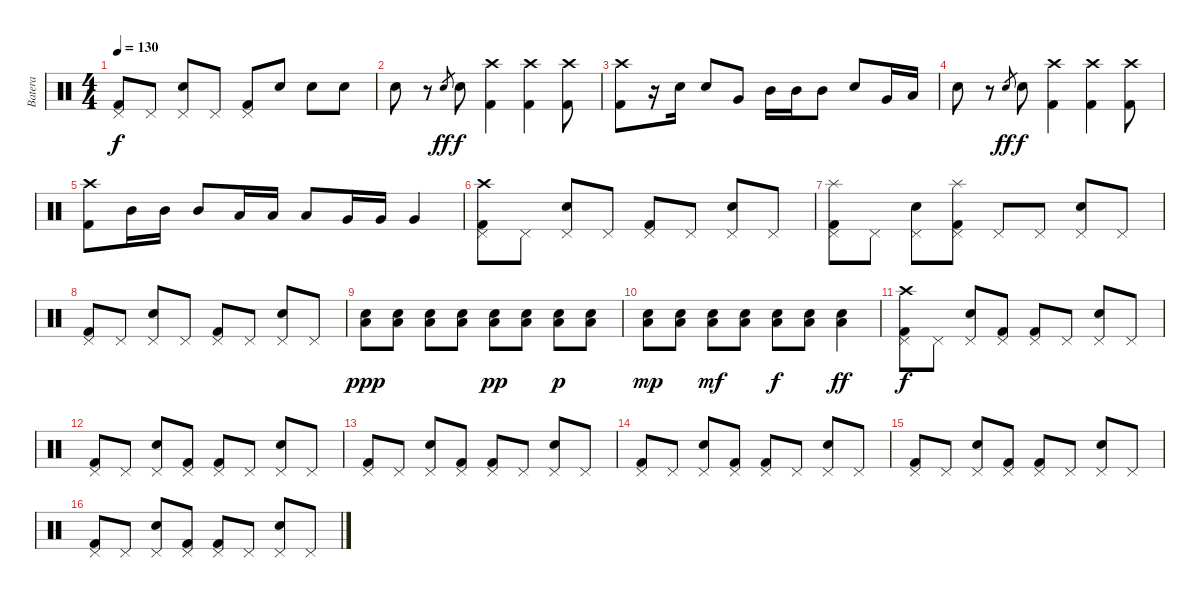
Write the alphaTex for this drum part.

\track ("Batera" "Batera") {instrument percussion}
\staff {score}
\articulation defaults
\ts (4 4)
\tempo 130
\clef neutral
\ks c
("Pedal Hi-Hat (hit)" "Kick (hit) 2").8{dy f} "Pedal Hi-Hat (hit)".8 ("Pedal Hi-Hat (hit)" "Snare (hit) 2").8 "Pedal Hi-Hat (hit)".8 ("Pedal Hi-Hat (hit)" "Kick (hit) 2").8 "Snare (hit) 2".8 "Snare (hit) 2".8 "Snare (hit) 2".8 |
"Snare (hit) 2".8 r.8 "Snare (hit) 2".8{gr dy ff} "Snare (hit) 2".8{dy f} ("Crash high (hit)" "Kick (hit) 2").4 ("Crash high (hit)" "Kick (hit) 2").4 ("Crash high (hit)" "Kick (hit) 2").8 |
("Crash high (hit)" "Kick (hit) 2").8 r.16 "Snare (hit) 2".16 "Snare (hit) 2".8 "Very Low Tom (hit)".8 "Mid Tom (hit)".16 "Mid Tom (hit)".16 "Mid Tom (hit)".8 "Snare (hit) 2".8 "Very Low Tom (hit)".16 "Low Floor Tom (hit)".16 |
"Snare (hit) 2".8 r.8 "Snare (hit) 2".8{gr dy ff} "Snare (hit) 2".8{dy f} ("Crash high (hit)" "Kick (hit) 2").4 ("Crash high (hit)" "Kick (hit) 2").4 ("Crash high (hit)" "Kick (hit) 2").8 |
("Crash high (hit)" "Kick (hit) 2").8 "Mid Tom (hit)".16 "Mid Tom (hit)".16 "Mid Tom (hit)".8 "Low Tom (hit)".16 "Low Tom (hit)".16 "Low Tom (hit)".8 "Very Low Tom (hit)".16 "Very Low Tom (hit)".16 "Very Low Tom (hit)".4 |
("Pedal Hi-Hat (hit)" "Crash high (hit)" "Kick (hit) 2").8 "Pedal Hi-Hat (hit)".8 ("Pedal Hi-Hat (hit)" "Snare (hit) 2").8 "Pedal Hi-Hat (hit)".8 ("Pedal Hi-Hat (hit)" "Kick (hit) 2").8 "Pedal Hi-Hat (hit)".8 ("Pedal Hi-Hat (hit)" "Snare (hit) 2").8 "Pedal Hi-Hat (hit)".8 |
("Pedal Hi-Hat (hit)" "Splash (hit)" "Kick (hit) 2").8 "Pedal Hi-Hat (hit)".8 ("Pedal Hi-Hat (hit)" "Snare (hit) 2").8 ("Pedal Hi-Hat (hit)" "Splash (hit)" "Kick (hit) 2").8 "Pedal Hi-Hat (hit)".8 "Pedal Hi-Hat (hit)".8 ("Pedal Hi-Hat (hit)" "Snare (hit) 2").8 "Pedal Hi-Hat (hit)".8 |
("Pedal Hi-Hat (hit)" "Kick (hit) 2").8 "Pedal Hi-Hat (hit)".8 ("Pedal Hi-Hat (hit)" "Snare (hit) 2").8 "Pedal Hi-Hat (hit)".8 ("Pedal Hi-Hat (hit)" "Kick (hit) 2").8 "Pedal Hi-Hat (hit)".8 ("Pedal Hi-Hat (hit)" "Snare (hit) 2").8 "Pedal Hi-Hat (hit)".8 |
("Low Floor Tom (hit)" "Snare (hit) 2").8{dy ppp} ("Low Floor Tom (hit)" "Snare (hit) 2").8 ("Low Floor Tom (hit)" "Snare (hit) 2").8 ("Low Floor Tom (hit)" "Snare (hit) 2").8 ("Low Floor Tom (hit)" "Snare (hit) 2").8{dy pp} ("Low Floor Tom (hit)" "Snare (hit) 2").8 ("Low Floor Tom (hit)" "Snare (hit) 2").8{dy p} ("Low Floor Tom (hit)" "Snare (hit) 2").8 |
("Low Floor Tom (hit)" "Snare (hit) 2").8{dy mp} ("Low Floor Tom (hit)" "Snare (hit) 2").8 ("Low Floor Tom (hit)" "Snare (hit) 2").8{dy mf} ("Low Floor Tom (hit)" "Snare (hit) 2").8 ("Low Floor Tom (hit)" "Snare (hit) 2").8{dy f} ("Low Floor Tom (hit)" "Snare (hit) 2").8 ("Low Floor Tom (hit)" "Snare (hit) 2").4{dy ff} |
("Pedal Hi-Hat (hit)" "Crash high (hit)" "Kick (hit) 2").8{dy f} "Pedal Hi-Hat (hit)".8 ("Pedal Hi-Hat (hit)" "Snare (hit) 2").8 ("Pedal Hi-Hat (hit)" "Kick (hit) 2").8 ("Pedal Hi-Hat (hit)" "Kick (hit) 2").8 "Pedal Hi-Hat (hit)".8 ("Pedal Hi-Hat (hit)" "Snare (hit) 2").8 "Pedal Hi-Hat (hit)".8 |
("Pedal Hi-Hat (hit)" "Kick (hit) 2").8 "Pedal Hi-Hat (hit)".8 ("Pedal Hi-Hat (hit)" "Snare (hit) 2").8 ("Pedal Hi-Hat (hit)" "Kick (hit) 2").8 ("Pedal Hi-Hat (hit)" "Kick (hit) 2").8 "Pedal Hi-Hat (hit)".8 ("Pedal Hi-Hat (hit)" "Snare (hit) 2").8 "Pedal Hi-Hat (hit)".8 |
("Pedal Hi-Hat (hit)" "Kick (hit) 2").8 "Pedal Hi-Hat (hit)".8 ("Pedal Hi-Hat (hit)" "Snare (hit) 2").8 ("Pedal Hi-Hat (hit)" "Kick (hit) 2").8 ("Pedal Hi-Hat (hit)" "Kick (hit) 2").8 "Pedal Hi-Hat (hit)".8 ("Pedal Hi-Hat (hit)" "Snare (hit) 2").8 "Pedal Hi-Hat (hit)".8 |
("Pedal Hi-Hat (hit)" "Kick (hit) 2").8 "Pedal Hi-Hat (hit)".8 ("Pedal Hi-Hat (hit)" "Snare (hit) 2").8 ("Pedal Hi-Hat (hit)" "Kick (hit) 2").8 ("Pedal Hi-Hat (hit)" "Kick (hit) 2").8 "Pedal Hi-Hat (hit)".8 ("Pedal Hi-Hat (hit)" "Snare (hit) 2").8 "Pedal Hi-Hat (hit)".8 |
("Pedal Hi-Hat (hit)" "Kick (hit) 2").8 "Pedal Hi-Hat (hit)".8 ("Pedal Hi-Hat (hit)" "Snare (hit) 2").8 ("Pedal Hi-Hat (hit)" "Kick (hit) 2").8 ("Pedal Hi-Hat (hit)" "Kick (hit) 2").8 "Pedal Hi-Hat (hit)".8 ("Pedal Hi-Hat (hit)" "Snare (hit) 2").8 "Pedal Hi-Hat (hit)".8 |
("Pedal Hi-Hat (hit)" "Kick (hit) 2").8 "Pedal Hi-Hat (hit)".8 ("Pedal Hi-Hat (hit)" "Snare (hit) 2").8 ("Pedal Hi-Hat (hit)" "Kick (hit) 2").8 ("Pedal Hi-Hat (hit)" "Kick (hit) 2").8 "Pedal Hi-Hat (hit)".8 ("Pedal Hi-Hat (hit)" "Snare (hit) 2").8 "Pedal Hi-Hat (hit)".8
